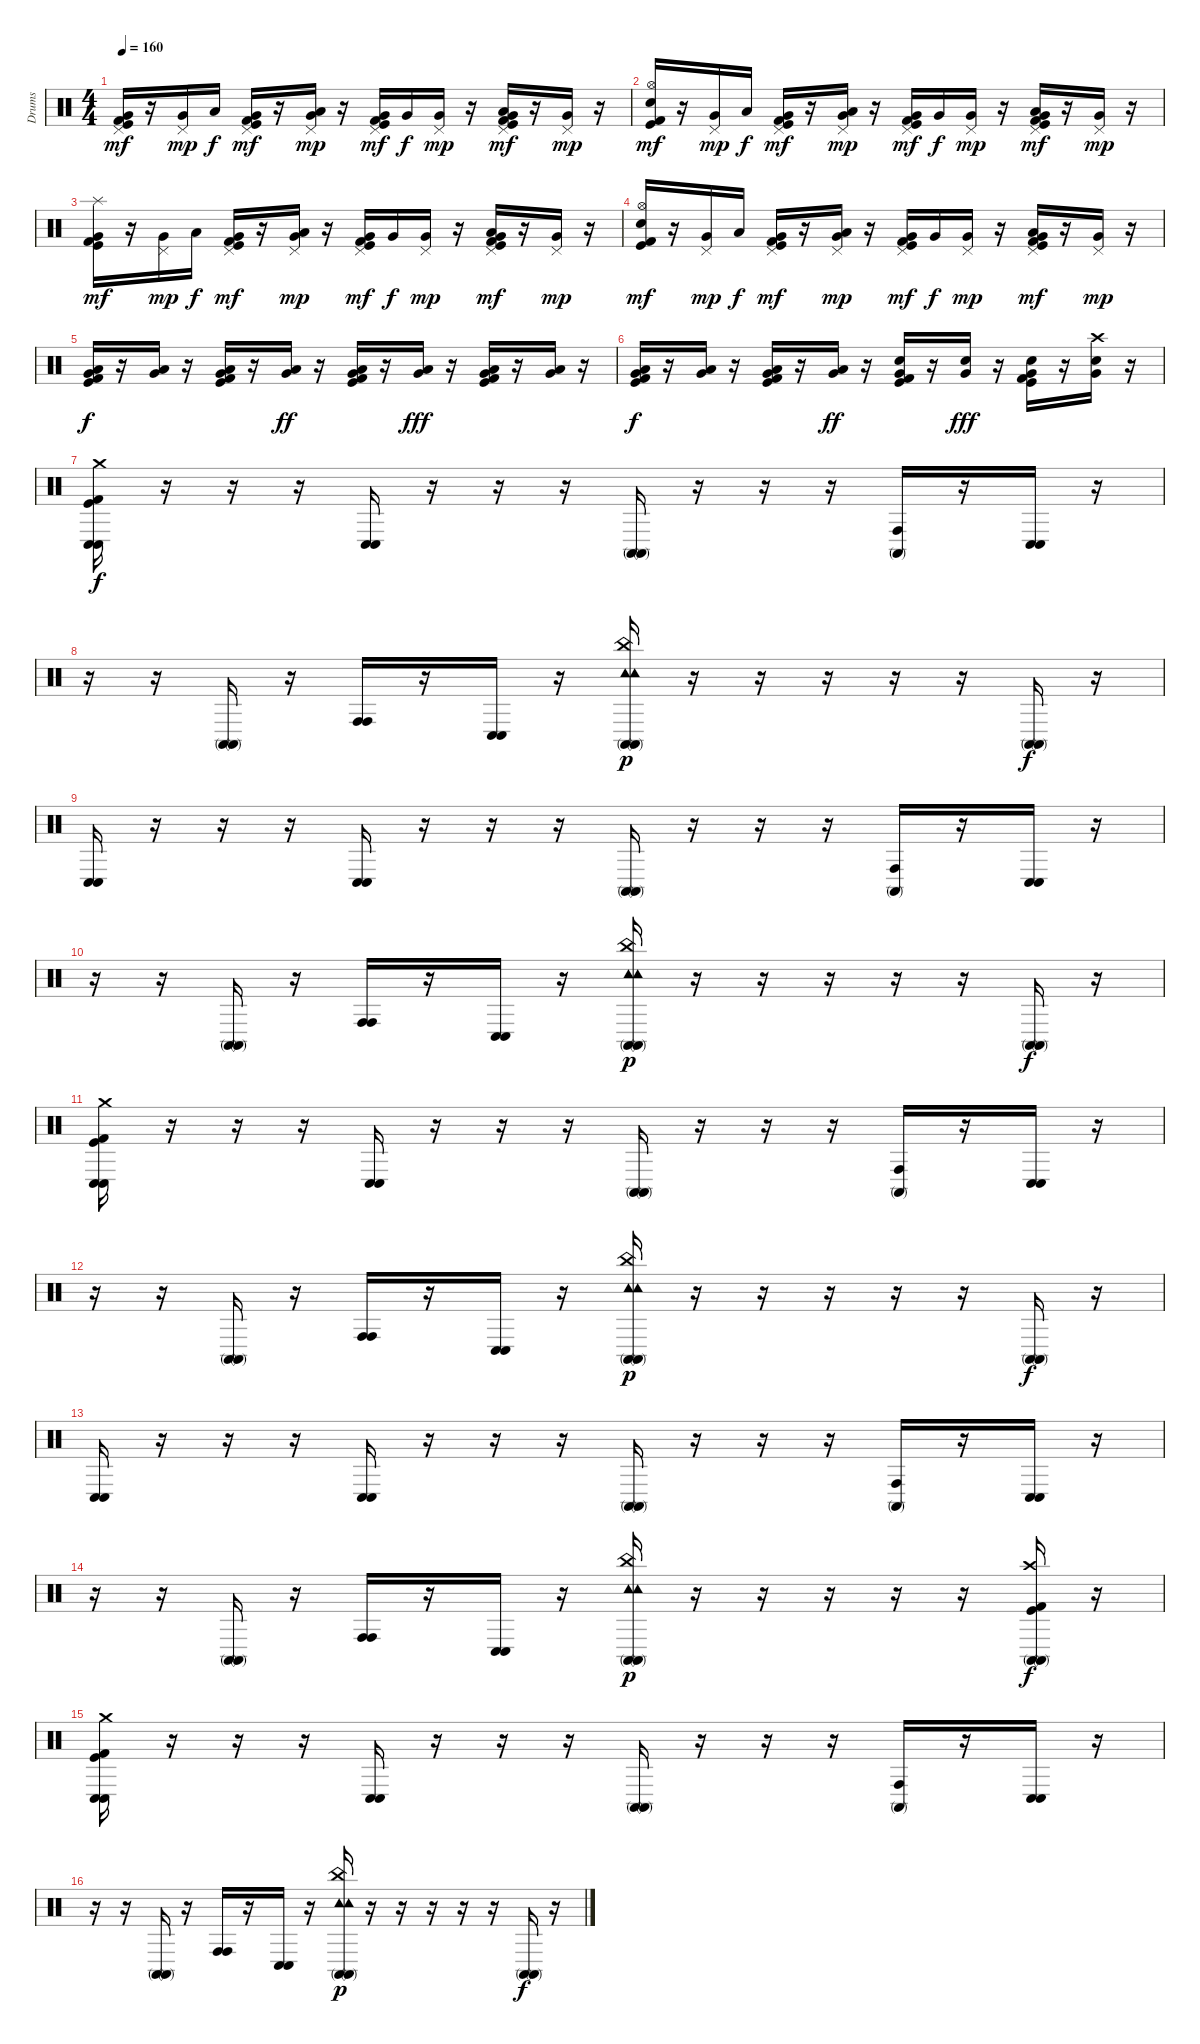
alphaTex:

\track ("Drums" "Drums") {instrument percussion}
\staff {score}
\articulation defaults
\ts (4 4)
\tempo 160
\clef neutral
\ks c
("Pedal Hi-Hat (hit)" "Very Low Tom (hit)" "Kick (hit)" "Kick (hit) 2").16{dy mf} r.16 ("Pedal Hi-Hat (hit)" "Very Low Tom (hit)").16{dy mp} "Low Tom (hit)".16{dy f} ("Pedal Hi-Hat (hit)" "Very Low Tom (hit)" "Kick (hit)" "Kick (hit) 2").16{dy mf} r.16 ("Pedal Hi-Hat (hit)" "Low Tom (hit)" "Very Low Tom (hit)").16{dy mp} r.16 ("Pedal Hi-Hat (hit)" "Very Low Tom (hit)" "Kick (hit)" "Kick (hit) 2").16{dy mf} "Very Low Tom (hit)".16{dy f} ("Pedal Hi-Hat (hit)" "Very Low Tom (hit)").16{dy mp} r.16 ("Pedal Hi-Hat (hit)" "Low Tom (hit)" "Very Low Tom (hit)" "Kick (hit)" "Kick (hit) 2").16{dy mf} r.16 ("Pedal Hi-Hat (hit)" "Very Low Tom (hit)").16{dy mp} r.16 |
("Hi-Hat (open)" "Electric Snare (hit)" "Kick (hit)" "Kick (hit) 2").16{dy mf} r.16 ("Pedal Hi-Hat (hit)" "Very Low Tom (hit)").16{dy mp} "Low Tom (hit)".16{dy f} ("Pedal Hi-Hat (hit)" "Very Low Tom (hit)" "Kick (hit)" "Kick (hit) 2").16{dy mf} r.16 ("Pedal Hi-Hat (hit)" "Low Tom (hit)" "Very Low Tom (hit)").16{dy mp} r.16 ("Pedal Hi-Hat (hit)" "Very Low Tom (hit)" "Kick (hit)" "Kick (hit) 2").16{dy mf} "Very Low Tom (hit)".16{dy f} ("Pedal Hi-Hat (hit)" "Very Low Tom (hit)").16{dy mp} r.16 ("Pedal Hi-Hat (hit)" "Low Tom (hit)" "Very Low Tom (hit)" "Kick (hit)" "Kick (hit) 2").16{dy mf} r.16 ("Pedal Hi-Hat (hit)" "Very Low Tom (hit)").16{dy mp} r.16 |
("Splash (hit)" "Very Low Tom (hit)" "Kick (hit)" "Kick (hit) 2").16{dy mf} r.16 ("Pedal Hi-Hat (hit)" "Very Low Tom (hit)").16{dy mp} "Low Tom (hit)".16{dy f} ("Pedal Hi-Hat (hit)" "Very Low Tom (hit)" "Kick (hit)" "Kick (hit) 2").16{dy mf} r.16 ("Pedal Hi-Hat (hit)" "Low Tom (hit)" "Very Low Tom (hit)").16{dy mp} r.16 ("Pedal Hi-Hat (hit)" "Very Low Tom (hit)" "Kick (hit)" "Kick (hit) 2").16{dy mf} "Very Low Tom (hit)".16{dy f} ("Pedal Hi-Hat (hit)" "Very Low Tom (hit)").16{dy mp} r.16 ("Pedal Hi-Hat (hit)" "Low Tom (hit)" "Very Low Tom (hit)" "Kick (hit)" "Kick (hit) 2").16{dy mf} r.16 ("Pedal Hi-Hat (hit)" "Very Low Tom (hit)").16{dy mp} r.16 |
("Hi-Hat (open)" "Electric Snare (hit)" "Kick (hit)" "Kick (hit) 2").16{dy mf} r.16 ("Pedal Hi-Hat (hit)" "Very Low Tom (hit)").16{dy mp} "Low Tom (hit)".16{dy f} ("Pedal Hi-Hat (hit)" "Very Low Tom (hit)" "Kick (hit)" "Kick (hit) 2").16{dy mf} r.16 ("Pedal Hi-Hat (hit)" "Low Tom (hit)" "Very Low Tom (hit)").16{dy mp} r.16 ("Pedal Hi-Hat (hit)" "Very Low Tom (hit)" "Kick (hit)" "Kick (hit) 2").16{dy mf} "Very Low Tom (hit)".16{dy f} ("Pedal Hi-Hat (hit)" "Very Low Tom (hit)").16{dy mp} r.16 ("Pedal Hi-Hat (hit)" "Low Tom (hit)" "Very Low Tom (hit)" "Kick (hit)" "Kick (hit) 2").16{dy mf} r.16 ("Pedal Hi-Hat (hit)" "Very Low Tom (hit)").16{dy mp} r.16 |
("Low Floor Tom (hit)" "Very Low Tom (hit)" "Kick (hit)" "Kick (hit) 2").16{dy f} r.16 ("Low Floor Tom (hit)" "Very Low Tom (hit)").16 r.16 ("Low Floor Tom (hit)" "Very Low Tom (hit)" "Kick (hit)" "Kick (hit) 2").16 r.16 ("Low Floor Tom (hit)" "Very Low Tom (hit)").16{dy ff} r.16 ("Low Floor Tom (hit)" "Very Low Tom (hit)" "Kick (hit)" "Kick (hit) 2").16 r.16 ("Low Floor Tom (hit)" "Very Low Tom (hit)").16{dy fff} r.16 ("Low Floor Tom (hit)" "Very Low Tom (hit)" "Kick (hit)" "Kick (hit) 2").16 r.16 ("Low Floor Tom (hit)" "Very Low Tom (hit)").16 r.16 |
("Low Floor Tom (hit)" "Very Low Tom (hit)" "Kick (hit)" "Kick (hit) 2").16{dy f} r.16 ("Low Floor Tom (hit)" "Very Low Tom (hit)").16 r.16 ("Low Floor Tom (hit)" "Very Low Tom (hit)" "Kick (hit)" "Kick (hit) 2").16 r.16 ("Low Floor Tom (hit)" "Very Low Tom (hit)").16{dy ff} r.16 ("Electric Snare (hit)" "Very Low Tom (hit)" "Kick (hit)" "Kick (hit) 2").16 r.16 ("Electric Snare (hit)" "Very Low Tom (hit)").16{dy fff} r.16 ("Electric Snare (hit)" "Very Low Tom (hit)" "Kick (hit)" "Kick (hit) 2").16 r.16 ("Crash high (hit)" "Electric Snare (hit)" "Very Low Tom (hit)").16 r.16 |
("Conga low (hit)" "Conga low (hit)" "Crash medium (hit)" "Kick (hit)" "Kick (hit) 2").16{dy f} r.16 r.16 r.16 ("Conga low (hit)" "Conga low (hit)").16 r.16 r.16 r.16 ("Conga high (mute)" "Conga high (mute)").16 r.16 r.16 r.16 ("Conga high (hit)" "Conga high (mute)").16 r.16 ("Conga low (hit)" "Conga low (hit)").16 r.16 |
r.16 r.16 ("Conga high (mute)" "Conga high (mute)").16 r.16 ("Conga high (hit)" "Conga high (hit)").16 r.16 ("Conga low (hit)" "Conga low (hit)").16 r.16 ("Conga high (mute)" "Conga high (mute)" "Tambourine (hit)" "Tambourine (hit)" "China (hit)").16{dy p} r.16 r.16 r.16 r.16 r.16 ("Conga high (mute)" "Conga high (mute)").16{dy f} r.16 |
("Conga low (hit)" "Conga low (hit)").16 r.16 r.16 r.16 ("Conga low (hit)" "Conga low (hit)").16 r.16 r.16 r.16 ("Conga high (mute)" "Conga high (mute)").16 r.16 r.16 r.16 ("Conga high (hit)" "Conga high (mute)").16 r.16 ("Conga low (hit)" "Conga low (hit)").16 r.16 |
r.16 r.16 ("Conga high (mute)" "Conga high (mute)").16 r.16 ("Conga high (hit)" "Conga high (hit)").16 r.16 ("Conga low (hit)" "Conga low (hit)").16 r.16 ("Conga high (mute)" "Conga high (mute)" "Tambourine (hit)" "Tambourine (hit)" "China (hit)").16{dy p} r.16 r.16 r.16 r.16 r.16 ("Conga high (mute)" "Conga high (mute)").16{dy f} r.16 |
("Conga low (hit)" "Conga low (hit)" "Crash medium (hit)" "Kick (hit)" "Kick (hit) 2").16 r.16 r.16 r.16 ("Conga low (hit)" "Conga low (hit)").16 r.16 r.16 r.16 ("Conga high (mute)" "Conga high (mute)").16 r.16 r.16 r.16 ("Conga high (hit)" "Conga high (mute)").16 r.16 ("Conga low (hit)" "Conga low (hit)").16 r.16 |
r.16 r.16 ("Conga high (mute)" "Conga high (mute)").16 r.16 ("Conga high (hit)" "Conga high (hit)").16 r.16 ("Conga low (hit)" "Conga low (hit)").16 r.16 ("Conga high (mute)" "Conga high (mute)" "Tambourine (hit)" "Tambourine (hit)" "China (hit)").16{dy p} r.16 r.16 r.16 r.16 r.16 ("Conga high (mute)" "Conga high (mute)").16{dy f} r.16 |
("Conga low (hit)" "Conga low (hit)").16 r.16 r.16 r.16 ("Conga low (hit)" "Conga low (hit)").16 r.16 r.16 r.16 ("Conga high (mute)" "Conga high (mute)").16 r.16 r.16 r.16 ("Conga high (hit)" "Conga high (mute)").16 r.16 ("Conga low (hit)" "Conga low (hit)").16 r.16 |
r.16 r.16 ("Conga high (mute)" "Conga high (mute)").16 r.16 ("Conga high (hit)" "Conga high (hit)").16 r.16 ("Conga low (hit)" "Conga low (hit)").16 r.16 ("Conga high (mute)" "Conga high (mute)" "Tambourine (hit)" "Tambourine (hit)" "China (hit)").16{dy p} r.16 r.16 r.16 r.16 r.16 ("Conga high (mute)" "Conga high (mute)" "Kick (hit)" "Kick (hit) 2" "Crash high (hit)").16{dy f} r.16 |
("Conga low (hit)" "Conga low (hit)" "Crash medium (hit)" "Kick (hit)" "Kick (hit) 2").16 r.16 r.16 r.16 ("Conga low (hit)" "Conga low (hit)").16 r.16 r.16 r.16 ("Conga high (mute)" "Conga high (mute)").16 r.16 r.16 r.16 ("Conga high (hit)" "Conga high (mute)").16 r.16 ("Conga low (hit)" "Conga low (hit)").16 r.16 |
r.16 r.16 ("Conga high (mute)" "Conga high (mute)").16 r.16 ("Conga high (hit)" "Conga high (hit)").16 r.16 ("Conga low (hit)" "Conga low (hit)").16 r.16 ("Conga high (mute)" "Conga high (mute)" "Tambourine (hit)" "Tambourine (hit)" "China (hit)").16{dy p} r.16 r.16 r.16 r.16 r.16 ("Conga high (mute)" "Conga high (mute)").16{dy f} r.16
